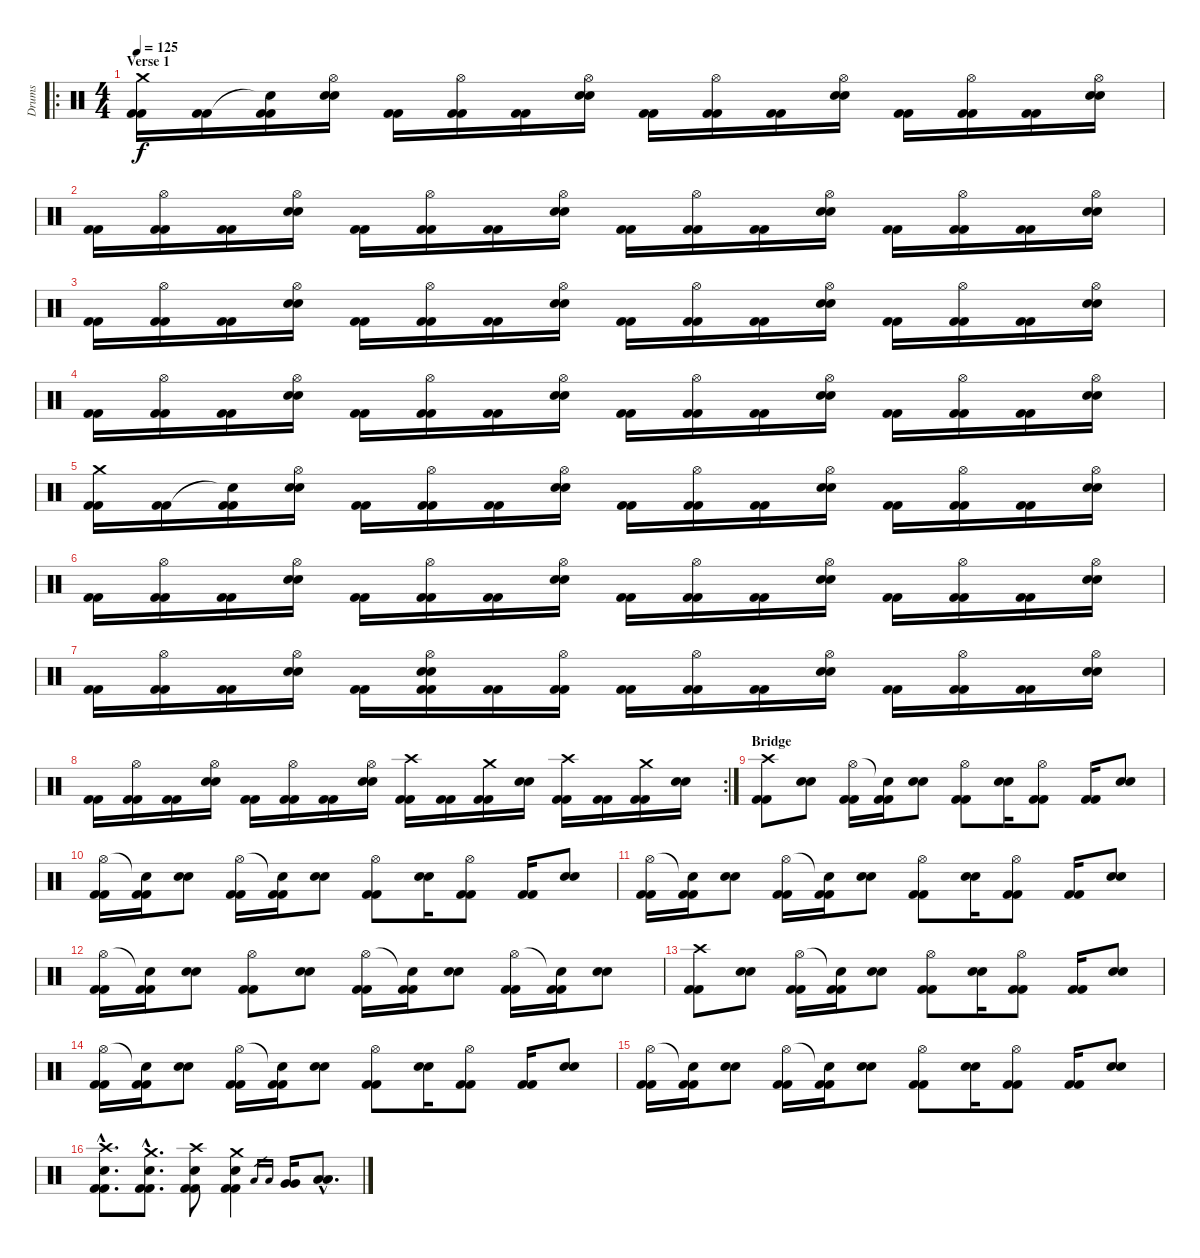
\track ("Drums" "Drums") {instrument percussion}
\staff {score}
\articulation defaults
\ro
\ts (4 4)
\section ("" "Verse 1")
\tempo 125
\clef neutral
\ks c
("Crash medium (hit)" "Kick (hit) 2" "Kick (hit) 2").16{dy f} ("Kick (hit) 2" "Kick (hit) 2").16 ("Snare (hit)"{t} "Kick (hit) 2" "Kick (hit) 2").16 ("Hi-Hat (open)" "Snare (hit) 2" "Snare (hit) 2").16 ("Kick (hit) 2" "Kick (hit) 2").16 ("Hi-Hat (open)" "Kick (hit) 2" "Kick (hit) 2").16 ("Kick (hit) 2" "Kick (hit) 2").16 ("Hi-Hat (open)" "Snare (hit) 2" "Snare (hit) 2").16 ("Kick (hit) 2" "Kick (hit) 2").16 ("Hi-Hat (open)" "Kick (hit) 2" "Kick (hit) 2").16 ("Kick (hit) 2" "Kick (hit) 2").16 ("Hi-Hat (open)" "Snare (hit) 2" "Snare (hit) 2").16 ("Kick (hit) 2" "Kick (hit) 2").16 ("Hi-Hat (open)" "Kick (hit) 2" "Kick (hit) 2").16 ("Kick (hit) 2" "Kick (hit) 2").16 ("Hi-Hat (open)" "Snare (hit) 2" "Snare (hit) 2").16 |
("Kick (hit) 2" "Kick (hit) 2").16 ("Hi-Hat (open)" "Kick (hit) 2" "Kick (hit) 2").16 ("Kick (hit) 2" "Kick (hit) 2").16 ("Hi-Hat (open)" "Snare (hit) 2" "Snare (hit) 2").16 ("Kick (hit) 2" "Kick (hit) 2").16 ("Hi-Hat (open)" "Kick (hit) 2" "Kick (hit) 2").16 ("Kick (hit) 2" "Kick (hit) 2").16 ("Hi-Hat (open)" "Snare (hit) 2" "Snare (hit) 2").16 ("Kick (hit) 2" "Kick (hit) 2").16 ("Hi-Hat (open)" "Kick (hit) 2" "Kick (hit) 2").16 ("Kick (hit) 2" "Kick (hit) 2").16 ("Hi-Hat (open)" "Snare (hit) 2" "Snare (hit) 2").16 ("Kick (hit) 2" "Kick (hit) 2").16 ("Hi-Hat (open)" "Kick (hit) 2" "Kick (hit) 2").16 ("Kick (hit) 2" "Kick (hit) 2").16 ("Hi-Hat (open)" "Snare (hit) 2" "Snare (hit) 2").16 |
("Kick (hit) 2" "Kick (hit) 2").16 ("Hi-Hat (open)" "Kick (hit) 2" "Kick (hit) 2").16 ("Kick (hit) 2" "Kick (hit) 2").16 ("Hi-Hat (open)" "Snare (hit) 2" "Snare (hit) 2").16 ("Kick (hit) 2" "Kick (hit) 2").16 ("Hi-Hat (open)" "Kick (hit) 2" "Kick (hit) 2").16 ("Kick (hit) 2" "Kick (hit) 2").16 ("Hi-Hat (open)" "Snare (hit) 2" "Snare (hit) 2").16 ("Kick (hit) 2" "Kick (hit) 2").16 ("Hi-Hat (open)" "Kick (hit) 2" "Kick (hit) 2").16 ("Kick (hit) 2" "Kick (hit) 2").16 ("Hi-Hat (open)" "Snare (hit) 2" "Snare (hit) 2").16 ("Kick (hit) 2" "Kick (hit) 2").16 ("Hi-Hat (open)" "Kick (hit) 2" "Kick (hit) 2").16 ("Kick (hit) 2" "Kick (hit) 2").16 ("Hi-Hat (open)" "Snare (hit) 2" "Snare (hit) 2").16 |
("Kick (hit) 2" "Kick (hit) 2").16 ("Hi-Hat (open)" "Kick (hit) 2" "Kick (hit) 2").16 ("Kick (hit) 2" "Kick (hit) 2").16 ("Hi-Hat (open)" "Snare (hit) 2" "Snare (hit) 2").16 ("Kick (hit) 2" "Kick (hit) 2").16 ("Hi-Hat (open)" "Kick (hit) 2" "Kick (hit) 2").16 ("Kick (hit) 2" "Kick (hit) 2").16 ("Hi-Hat (open)" "Snare (hit) 2" "Snare (hit) 2").16 ("Kick (hit) 2" "Kick (hit) 2").16 ("Hi-Hat (open)" "Kick (hit) 2" "Kick (hit) 2").16 ("Kick (hit) 2" "Kick (hit) 2").16 ("Hi-Hat (open)" "Snare (hit) 2" "Snare (hit) 2").16 ("Kick (hit) 2" "Kick (hit) 2").16 ("Hi-Hat (open)" "Kick (hit) 2" "Kick (hit) 2").16 ("Kick (hit) 2" "Kick (hit) 2").16 ("Hi-Hat (open)" "Snare (hit) 2" "Snare (hit) 2").16 |
("Crash medium (hit)" "Kick (hit) 2" "Kick (hit) 2").16 ("Kick (hit) 2" "Kick (hit) 2").16 ("Snare (hit)"{t} "Kick (hit) 2" "Kick (hit) 2").16 ("Hi-Hat (open)" "Snare (hit) 2" "Snare (hit) 2").16 ("Kick (hit) 2" "Kick (hit) 2").16 ("Hi-Hat (open)" "Kick (hit) 2" "Kick (hit) 2").16 ("Kick (hit) 2" "Kick (hit) 2").16 ("Hi-Hat (open)" "Snare (hit) 2" "Snare (hit) 2").16 ("Kick (hit) 2" "Kick (hit) 2").16 ("Hi-Hat (open)" "Kick (hit) 2" "Kick (hit) 2").16 ("Kick (hit) 2" "Kick (hit) 2").16 ("Hi-Hat (open)" "Snare (hit) 2" "Snare (hit) 2").16 ("Kick (hit) 2" "Kick (hit) 2").16 ("Hi-Hat (open)" "Kick (hit) 2" "Kick (hit) 2").16 ("Kick (hit) 2" "Kick (hit) 2").16 ("Hi-Hat (open)" "Snare (hit) 2" "Snare (hit) 2").16 |
("Kick (hit) 2" "Kick (hit) 2").16 ("Hi-Hat (open)" "Kick (hit) 2" "Kick (hit) 2").16 ("Kick (hit) 2" "Kick (hit) 2").16 ("Hi-Hat (open)" "Snare (hit) 2" "Snare (hit) 2").16 ("Kick (hit) 2" "Kick (hit) 2").16 ("Hi-Hat (open)" "Kick (hit) 2" "Kick (hit) 2").16 ("Kick (hit) 2" "Kick (hit) 2").16 ("Hi-Hat (open)" "Snare (hit) 2" "Snare (hit) 2").16 ("Kick (hit) 2" "Kick (hit) 2").16 ("Hi-Hat (open)" "Kick (hit) 2" "Kick (hit) 2").16 ("Kick (hit) 2" "Kick (hit) 2").16 ("Hi-Hat (open)" "Snare (hit) 2" "Snare (hit) 2").16 ("Kick (hit) 2" "Kick (hit) 2").16 ("Hi-Hat (open)" "Kick (hit) 2" "Kick (hit) 2").16 ("Kick (hit) 2" "Kick (hit) 2").16 ("Hi-Hat (open)" "Snare (hit) 2" "Snare (hit) 2").16 |
("Kick (hit) 2" "Kick (hit) 2").16 ("Hi-Hat (open)" "Kick (hit) 2" "Kick (hit) 2").16 ("Kick (hit) 2" "Kick (hit) 2").16 ("Hi-Hat (open)" "Snare (hit) 2" "Snare (hit) 2").16 ("Kick (hit) 2" "Kick (hit) 2").16 ("Hi-Hat (open)" "Snare (hit) 2" "Snare (hit) 2" "Kick (hit) 2" "Kick (hit) 2").16 ("Kick (hit) 2" "Kick (hit) 2").16 ("Hi-Hat (open)" "Kick (hit) 2" "Kick (hit) 2").16 ("Kick (hit) 2" "Kick (hit) 2").16 ("Hi-Hat (open)" "Kick (hit) 2" "Kick (hit) 2").16 ("Kick (hit) 2" "Kick (hit) 2").16 ("Hi-Hat (open)" "Snare (hit) 2" "Snare (hit) 2").16 ("Kick (hit) 2" "Kick (hit) 2").16 ("Hi-Hat (open)" "Kick (hit) 2" "Kick (hit) 2").16 ("Kick (hit) 2" "Kick (hit) 2").16 ("Hi-Hat (open)" "Snare (hit) 2" "Snare (hit) 2").16 |
\rc 2
("Kick (hit) 2" "Kick (hit) 2").16 ("Hi-Hat (open)" "Kick (hit) 2" "Kick (hit) 2").16 ("Kick (hit) 2" "Kick (hit) 2").16 ("Hi-Hat (open)" "Snare (hit) 2" "Snare (hit) 2").16 ("Kick (hit) 2" "Kick (hit) 2").16 ("Hi-Hat (open)" "Kick (hit) 2" "Kick (hit) 2").16 ("Kick (hit) 2" "Kick (hit) 2").16 ("Hi-Hat (open)" "Snare (hit) 2" "Snare (hit) 2").16 ("Crash high (hit)" "Kick (hit) 2" "Kick (hit) 2").16 ("Kick (hit) 2" "Kick (hit) 2").16 ("Crash medium (hit)" "Kick (hit) 2" "Kick (hit) 2").16 ("Snare (hit) 2" "Snare (hit) 2").16 ("Crash high (hit)" "Kick (hit) 2" "Kick (hit) 2").16 ("Kick (hit) 2" "Kick (hit) 2").16 ("Crash medium (hit)" "Kick (hit) 2" "Kick (hit) 2").16 ("Snare (hit) 2" "Snare (hit) 2").16 |
\section ("" "Bridge")
("Crash high (hit)" "Kick (hit) 2" "Kick (hit) 2").8 ("Snare (hit) 2" "Snare (hit) 2").8 ("Hi-Hat (open)" "Kick (hit) 2" "Kick (hit) 2").16 ("Snare (hit)"{t} "Kick (hit) 2" "Kick (hit) 2").16 ("Snare (hit) 2" "Snare (hit) 2").8 ("Hi-Hat (open)" "Kick (hit) 2" "Kick (hit) 2").8 ("Snare (hit) 2" "Snare (hit) 2").16 ("Hi-Hat (open)" "Kick (hit) 2" "Kick (hit) 2").8 ("Kick (hit) 2" "Kick (hit) 2").16 ("Snare (hit) 2" "Snare (hit) 2").8 |
("Hi-Hat (open)" "Kick (hit) 2" "Kick (hit) 2").16 ("Snare (hit)"{t} "Kick (hit) 2" "Kick (hit) 2").16 ("Snare (hit) 2" "Snare (hit) 2").8 ("Hi-Hat (open)" "Kick (hit) 2" "Kick (hit) 2").16 ("Snare (hit)"{t} "Kick (hit) 2" "Kick (hit) 2").16 ("Snare (hit) 2" "Snare (hit) 2").8 ("Hi-Hat (open)" "Kick (hit) 2" "Kick (hit) 2").8 ("Snare (hit) 2" "Snare (hit) 2").16 ("Hi-Hat (open)" "Kick (hit) 2" "Kick (hit) 2").8 ("Kick (hit) 2" "Kick (hit) 2").16 ("Snare (hit) 2" "Snare (hit) 2").8 |
("Hi-Hat (open)" "Kick (hit) 2" "Kick (hit) 2").16 ("Snare (hit)"{t} "Kick (hit) 2" "Kick (hit) 2").16 ("Snare (hit) 2" "Snare (hit) 2").8 ("Hi-Hat (open)" "Kick (hit) 2" "Kick (hit) 2").16 ("Snare (hit)"{t} "Kick (hit) 2" "Kick (hit) 2").16 ("Snare (hit) 2" "Snare (hit) 2").8 ("Hi-Hat (open)" "Kick (hit) 2" "Kick (hit) 2").8 ("Snare (hit) 2" "Snare (hit) 2").16 ("Hi-Hat (open)" "Kick (hit) 2" "Kick (hit) 2").8 ("Kick (hit) 2" "Kick (hit) 2").16 ("Snare (hit) 2" "Snare (hit) 2").8 |
("Hi-Hat (open)" "Kick (hit) 2" "Kick (hit) 2").16 ("Snare (hit)"{t} "Kick (hit) 2" "Kick (hit) 2").16 ("Snare (hit) 2" "Snare (hit) 2").8 ("Hi-Hat (open)" "Kick (hit) 2" "Kick (hit) 2").8 ("Snare (hit) 2" "Snare (hit) 2").8 ("Hi-Hat (open)" "Kick (hit) 2" "Kick (hit) 2").16 ("Snare (hit)"{t} "Kick (hit) 2" "Kick (hit) 2").16 ("Snare (hit) 2" "Snare (hit) 2").8 ("Hi-Hat (open)" "Kick (hit) 2" "Kick (hit) 2").16 ("Snare (hit)"{t} "Kick (hit) 2" "Kick (hit) 2").16 ("Snare (hit) 2" "Snare (hit) 2").8 |
("Crash high (hit)" "Kick (hit) 2" "Kick (hit) 2").8 ("Snare (hit) 2" "Snare (hit) 2").8 ("Hi-Hat (open)" "Kick (hit) 2" "Kick (hit) 2").16 ("Snare (hit)"{t} "Kick (hit) 2" "Kick (hit) 2").16 ("Snare (hit) 2" "Snare (hit) 2").8 ("Hi-Hat (open)" "Kick (hit) 2" "Kick (hit) 2").8 ("Snare (hit) 2" "Snare (hit) 2").16 ("Hi-Hat (open)" "Kick (hit) 2" "Kick (hit) 2").8 ("Kick (hit) 2" "Kick (hit) 2").16 ("Snare (hit) 2" "Snare (hit) 2").8 |
("Hi-Hat (open)" "Kick (hit) 2" "Kick (hit) 2").16 ("Snare (hit)"{t} "Kick (hit) 2" "Kick (hit) 2").16 ("Snare (hit) 2" "Snare (hit) 2").8 ("Hi-Hat (open)" "Kick (hit) 2" "Kick (hit) 2").16 ("Snare (hit)"{t} "Kick (hit) 2" "Kick (hit) 2").16 ("Snare (hit) 2" "Snare (hit) 2").8 ("Hi-Hat (open)" "Kick (hit) 2" "Kick (hit) 2").8 ("Snare (hit) 2" "Snare (hit) 2").16 ("Hi-Hat (open)" "Kick (hit) 2" "Kick (hit) 2").8 ("Kick (hit) 2" "Kick (hit) 2").16 ("Snare (hit) 2" "Snare (hit) 2").8 |
("Hi-Hat (open)" "Kick (hit) 2" "Kick (hit) 2").16 ("Snare (hit)"{t} "Kick (hit) 2" "Kick (hit) 2").16 ("Snare (hit) 2" "Snare (hit) 2").8 ("Hi-Hat (open)" "Kick (hit) 2" "Kick (hit) 2").16 ("Snare (hit)"{t} "Kick (hit) 2" "Kick (hit) 2").16 ("Snare (hit) 2" "Snare (hit) 2").8 ("Hi-Hat (open)" "Kick (hit) 2" "Kick (hit) 2").8 ("Snare (hit) 2" "Snare (hit) 2").16 ("Hi-Hat (open)" "Kick (hit) 2" "Kick (hit) 2").8 ("Kick (hit) 2" "Kick (hit) 2").16 ("Snare (hit) 2" "Snare (hit) 2").8 |
("Crash high (hit)"{hac} "Snare (hit) 2"{hac} "Kick (hit) 2"{hac} "Kick (hit) 2"{hac}).8{d} ("Crash medium (hit)"{hac} "Snare (hit) 2"{hac} "Kick (hit) 2"{hac} "Kick (hit) 2"{hac}).8{d} ("Crash high (hit)" "Snare (hit) 2" "Kick (hit) 2" "Kick (hit) 2").8 ("Crash medium (hit)" "Snare (hit) 2" "Kick (hit) 2" "Kick (hit) 2").4 "Low Floor Tom (hit)".16{gr} "Low Floor Tom (hit)".16{gr} ("Very Low Tom (hit)" "Very Low Tom (hit)").16 ("Low Tom (hit)"{hac} "Low Tom (hit)"{hac}).8{d}
